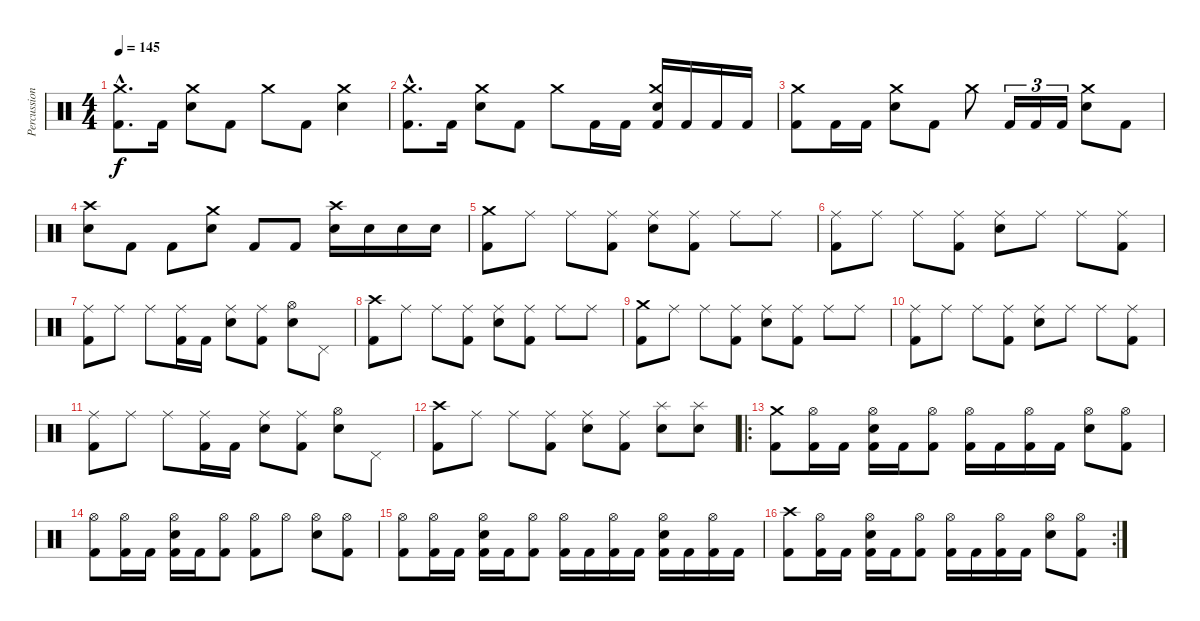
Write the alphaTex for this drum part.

\track ("Percussion" "Percussion") {instrument percussion}
\staff {score}
\articulation defaults
\ts (4 4)
\tempo 145
\clef neutral
\ks c
("Kick (hit) 2"{hac} "Crash medium (hit)"{hac}).8{d dy f} "Kick (hit) 2".16 ("Electric Snare (hit)" "Crash medium (hit)").8 "Kick (hit) 2".8 "Crash medium (hit)".8 "Kick (hit) 2".8 ("Electric Snare (hit)" "Crash medium (hit)").4 |
("Kick (hit) 2"{hac} "Crash medium (hit)"{hac}).8{d} "Kick (hit) 2".16 ("Electric Snare (hit)" "Crash medium (hit)").8 "Kick (hit) 2".8 "Crash medium (hit)".8 "Kick (hit) 2".16 "Kick (hit) 2".16 ("Kick (hit) 2" "Electric Snare (hit)" "Crash medium (hit)").16 "Kick (hit) 2".16 "Kick (hit) 2".16 "Kick (hit) 2".16 |
("Kick (hit) 2" "Crash medium (hit)").8 "Kick (hit) 2".16 "Kick (hit) 2".16 ("Electric Snare (hit)" "Crash medium (hit)").8 "Kick (hit) 2".8 "Crash medium (hit)".8 "Kick (hit) 2".16{tu (3 2)} "Kick (hit) 2".16{tu (3 2)} "Kick (hit) 2".16{tu (3 2)} ("Electric Snare (hit)" "Crash medium (hit)").8 "Kick (hit) 2".8 |
("Electric Snare (hit)" "Crash high (hit)").8 "Kick (hit) 2".8 "Kick (hit) 2".8 ("Electric Snare (hit)" "Crash medium (hit)").8 "Kick (hit) 2".8 "Kick (hit) 2".8 ("Electric Snare (hit)" "Crash high (hit)").16 "Electric Snare (hit)".16 "Electric Snare (hit)".16 "Electric Snare (hit)".16 |
("Kick (hit) 2" "Crash medium (hit)").8 "Ride (middle)".8 "Ride (middle)".8 ("Kick (hit) 2" "Ride (middle)").8 ("Electric Snare (hit)" "Ride (middle)").8 ("Kick (hit) 2" "Ride (middle)").8 "Ride (middle)".8 "Ride (middle)".8 |
("Kick (hit) 2" "Ride (middle)").8 "Ride (middle)".8 "Ride (middle)".8 ("Kick (hit) 2" "Ride (middle)").8 ("Electric Snare (hit)" "Ride (middle)").8 "Ride (middle)".8 "Ride (middle)".8 ("Kick (hit) 2" "Ride (middle)").8 |
("Kick (hit) 2" "Ride (middle)").8 "Ride (middle)".8 "Ride (middle)".8 ("Kick (hit) 2" "Ride (middle)").16 "Kick (hit) 2".16 ("Electric Snare (hit)" "Ride (middle)").8 ("Kick (hit) 2" "Ride (middle)").8 ("Electric Snare (hit)" "Hi-Hat (open)").8 "Pedal Hi-Hat (hit)".8 |
("Kick (hit) 2" "Crash high (hit)").8 "Ride (middle)".8 "Ride (middle)".8 ("Kick (hit) 2" "Ride (middle)").8 ("Electric Snare (hit)" "Ride (middle)").8 ("Kick (hit) 2" "Ride (middle)").8 "Ride (middle)".8 "Ride (middle)".8 |
("Kick (hit) 2" "Crash medium (hit)").8 "Ride (middle)".8 "Ride (middle)".8 ("Kick (hit) 2" "Ride (middle)").8 ("Electric Snare (hit)" "Ride (middle)").8 ("Kick (hit) 2" "Ride (middle)").8 "Ride (middle)".8 "Ride (middle)".8 |
("Kick (hit) 2" "Ride (middle)").8 "Ride (middle)".8 "Ride (middle)".8 ("Kick (hit) 2" "Ride (middle)").8 ("Electric Snare (hit)" "Ride (middle)").8 "Ride (middle)".8 "Ride (middle)".8 ("Kick (hit) 2" "Ride (middle)").8 |
("Kick (hit) 2" "Ride (middle)").8 "Ride (middle)".8 "Ride (middle)".8 ("Kick (hit) 2" "Ride (middle)").16 "Kick (hit) 2".16 ("Electric Snare (hit)" "Ride (middle)").8 ("Kick (hit) 2" "Ride (middle)").8 ("Electric Snare (hit)" "Hi-Hat (open)").8 "Pedal Hi-Hat (hit)".8 |
("Kick (hit) 2" "Crash high (hit)").8 "Ride (middle)".8 "Ride (middle)".8 ("Kick (hit) 2" "Ride (middle)").8 ("Electric Snare (hit)" "Ride (middle)").8 ("Kick (hit) 2" "Ride (middle)").8 ("Electric Snare (hit)" "Splash (hit)").8 ("Electric Snare (hit)" "Splash (hit)").8 |
\ro
("Kick (hit) 2" "Crash medium (hit)").8 ("Kick (hit) 2" "Hi-Hat (open)").16 "Kick (hit) 2".16 ("Kick (hit) 2" "Electric Snare (hit)" "Hi-Hat (open)").16 "Kick (hit) 2".16 ("Kick (hit) 2" "Hi-Hat (open)").8 ("Kick (hit) 2" "Hi-Hat (open)").16 "Kick (hit) 2".16 ("Kick (hit) 2" "Hi-Hat (open)").16 "Kick (hit) 2".16 ("Electric Snare (hit)" "Hi-Hat (open)").8 ("Kick (hit) 2" "Hi-Hat (open)").8 |
("Kick (hit) 2" "Hi-Hat (open)").8 ("Kick (hit) 2" "Hi-Hat (open)").16 "Kick (hit) 2".16 ("Kick (hit) 2" "Electric Snare (hit)" "Hi-Hat (open)").16 "Kick (hit) 2".16 ("Kick (hit) 2" "Hi-Hat (open)").8 ("Kick (hit) 2" "Hi-Hat (open)").8 "Hi-Hat (open)".8 ("Electric Snare (hit)" "Hi-Hat (open)").8 ("Kick (hit) 2" "Hi-Hat (open)").8 |
("Kick (hit) 2" "Hi-Hat (open)").8 ("Kick (hit) 2" "Hi-Hat (open)").16 "Kick (hit) 2".16 ("Kick (hit) 2" "Electric Snare (hit)" "Hi-Hat (open)").16 "Kick (hit) 2".16 ("Kick (hit) 2" "Hi-Hat (open)").8 ("Kick (hit) 2" "Hi-Hat (open)").16 "Kick (hit) 2".16 ("Kick (hit) 2" "Hi-Hat (open)").16 "Kick (hit) 2".16 ("Kick (hit) 2" "Electric Snare (hit)" "Hi-Hat (open)").16 "Kick (hit) 2".16 ("Kick (hit) 2" "Hi-Hat (open)").16 "Kick (hit) 2".16 |
\rc 2
("Kick (hit) 2" "Crash high (hit)").8 ("Kick (hit) 2" "Hi-Hat (open)").16 "Kick (hit) 2".16 ("Kick (hit) 2" "Electric Snare (hit)" "Hi-Hat (open)").16 "Kick (hit) 2".16 ("Kick (hit) 2" "Hi-Hat (open)").8 ("Kick (hit) 2" "Hi-Hat (open)").16 "Kick (hit) 2".16 ("Kick (hit) 2" "Hi-Hat (open)").16 "Kick (hit) 2".16 ("Electric Snare (hit)" "Hi-Hat (open)").8 ("Kick (hit) 2" "Hi-Hat (open)").8
